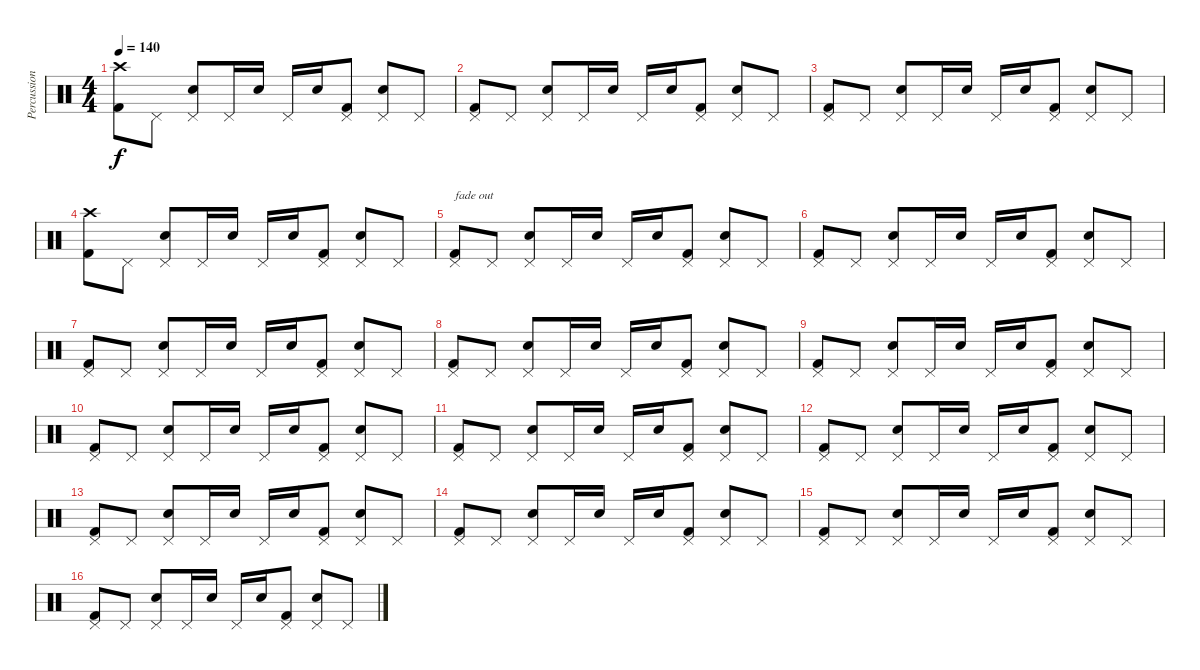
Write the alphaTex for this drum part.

\track ("Percussion" "Percussion") {instrument percussion}
\staff {score}
\articulation defaults
\ts (4 4)
\tempo 140
\clef neutral
\ks c
("Crash high (hit)" "Kick (hit) 2").8{dy f} "Pedal Hi-Hat (hit)".8 ("Pedal Hi-Hat (hit)" "Electric Snare (hit)").8 "Pedal Hi-Hat (hit)".16 "Electric Snare (hit)".16 "Pedal Hi-Hat (hit)".16 "Electric Snare (hit)".16 ("Pedal Hi-Hat (hit)" "Kick (hit) 2").8 ("Pedal Hi-Hat (hit)" "Electric Snare (hit)").8 "Pedal Hi-Hat (hit)".8 |
("Pedal Hi-Hat (hit)" "Kick (hit) 2").8 "Pedal Hi-Hat (hit)".8 ("Pedal Hi-Hat (hit)" "Electric Snare (hit)").8 "Pedal Hi-Hat (hit)".16 "Electric Snare (hit)".16 "Pedal Hi-Hat (hit)".16 "Electric Snare (hit)".16 ("Pedal Hi-Hat (hit)" "Kick (hit) 2").8 ("Pedal Hi-Hat (hit)" "Electric Snare (hit)").8 "Pedal Hi-Hat (hit)".8 |
("Pedal Hi-Hat (hit)" "Kick (hit) 2").8 "Pedal Hi-Hat (hit)".8 ("Pedal Hi-Hat (hit)" "Electric Snare (hit)").8 "Pedal Hi-Hat (hit)".16 "Electric Snare (hit)".16 "Pedal Hi-Hat (hit)".16 "Electric Snare (hit)".16 ("Pedal Hi-Hat (hit)" "Kick (hit) 2").8 ("Pedal Hi-Hat (hit)" "Electric Snare (hit)").8 "Pedal Hi-Hat (hit)".8 |
("Crash high (hit)" "Kick (hit) 2").8 "Pedal Hi-Hat (hit)".8 ("Pedal Hi-Hat (hit)" "Electric Snare (hit)").8 "Pedal Hi-Hat (hit)".16 "Electric Snare (hit)".16 "Pedal Hi-Hat (hit)".16 "Electric Snare (hit)".16 ("Pedal Hi-Hat (hit)" "Kick (hit) 2").8 ("Pedal Hi-Hat (hit)" "Electric Snare (hit)").8 "Pedal Hi-Hat (hit)".8 |
("Pedal Hi-Hat (hit)" "Kick (hit) 2").8{txt "fade out"} "Pedal Hi-Hat (hit)".8 ("Pedal Hi-Hat (hit)" "Electric Snare (hit)").8 "Pedal Hi-Hat (hit)".16 "Electric Snare (hit)".16 "Pedal Hi-Hat (hit)".16 "Electric Snare (hit)".16 ("Pedal Hi-Hat (hit)" "Kick (hit) 2").8 ("Pedal Hi-Hat (hit)" "Electric Snare (hit)").8 "Pedal Hi-Hat (hit)".8 |
("Pedal Hi-Hat (hit)" "Kick (hit) 2").8 "Pedal Hi-Hat (hit)".8 ("Pedal Hi-Hat (hit)" "Electric Snare (hit)").8 "Pedal Hi-Hat (hit)".16 "Electric Snare (hit)".16 "Pedal Hi-Hat (hit)".16 "Electric Snare (hit)".16 ("Pedal Hi-Hat (hit)" "Kick (hit) 2").8 ("Pedal Hi-Hat (hit)" "Electric Snare (hit)").8 "Pedal Hi-Hat (hit)".8 |
("Pedal Hi-Hat (hit)" "Kick (hit) 2").8 "Pedal Hi-Hat (hit)".8 ("Pedal Hi-Hat (hit)" "Electric Snare (hit)").8 "Pedal Hi-Hat (hit)".16 "Electric Snare (hit)".16 "Pedal Hi-Hat (hit)".16 "Electric Snare (hit)".16 ("Pedal Hi-Hat (hit)" "Kick (hit) 2").8 ("Pedal Hi-Hat (hit)" "Electric Snare (hit)").8 "Pedal Hi-Hat (hit)".8 |
("Pedal Hi-Hat (hit)" "Kick (hit) 2").8 "Pedal Hi-Hat (hit)".8 ("Pedal Hi-Hat (hit)" "Electric Snare (hit)").8 "Pedal Hi-Hat (hit)".16 "Electric Snare (hit)".16 "Pedal Hi-Hat (hit)".16 "Electric Snare (hit)".16 ("Pedal Hi-Hat (hit)" "Kick (hit) 2").8 ("Pedal Hi-Hat (hit)" "Electric Snare (hit)").8 "Pedal Hi-Hat (hit)".8 |
("Pedal Hi-Hat (hit)" "Kick (hit) 2").8 "Pedal Hi-Hat (hit)".8 ("Pedal Hi-Hat (hit)" "Electric Snare (hit)").8 "Pedal Hi-Hat (hit)".16 "Electric Snare (hit)".16 "Pedal Hi-Hat (hit)".16 "Electric Snare (hit)".16 ("Pedal Hi-Hat (hit)" "Kick (hit) 2").8 ("Pedal Hi-Hat (hit)" "Electric Snare (hit)").8 "Pedal Hi-Hat (hit)".8 |
("Pedal Hi-Hat (hit)" "Kick (hit) 2").8 "Pedal Hi-Hat (hit)".8 ("Pedal Hi-Hat (hit)" "Electric Snare (hit)").8 "Pedal Hi-Hat (hit)".16 "Electric Snare (hit)".16 "Pedal Hi-Hat (hit)".16 "Electric Snare (hit)".16 ("Pedal Hi-Hat (hit)" "Kick (hit) 2").8 ("Pedal Hi-Hat (hit)" "Electric Snare (hit)").8 "Pedal Hi-Hat (hit)".8 |
("Pedal Hi-Hat (hit)" "Kick (hit) 2").8 "Pedal Hi-Hat (hit)".8 ("Pedal Hi-Hat (hit)" "Electric Snare (hit)").8 "Pedal Hi-Hat (hit)".16 "Electric Snare (hit)".16 "Pedal Hi-Hat (hit)".16 "Electric Snare (hit)".16 ("Pedal Hi-Hat (hit)" "Kick (hit) 2").8 ("Pedal Hi-Hat (hit)" "Electric Snare (hit)").8 "Pedal Hi-Hat (hit)".8 |
("Pedal Hi-Hat (hit)" "Kick (hit) 2").8 "Pedal Hi-Hat (hit)".8 ("Pedal Hi-Hat (hit)" "Electric Snare (hit)").8 "Pedal Hi-Hat (hit)".16 "Electric Snare (hit)".16 "Pedal Hi-Hat (hit)".16 "Electric Snare (hit)".16 ("Pedal Hi-Hat (hit)" "Kick (hit) 2").8 ("Pedal Hi-Hat (hit)" "Electric Snare (hit)").8 "Pedal Hi-Hat (hit)".8 |
("Pedal Hi-Hat (hit)" "Kick (hit) 2").8 "Pedal Hi-Hat (hit)".8 ("Pedal Hi-Hat (hit)" "Electric Snare (hit)").8 "Pedal Hi-Hat (hit)".16 "Electric Snare (hit)".16 "Pedal Hi-Hat (hit)".16 "Electric Snare (hit)".16 ("Pedal Hi-Hat (hit)" "Kick (hit) 2").8 ("Pedal Hi-Hat (hit)" "Electric Snare (hit)").8 "Pedal Hi-Hat (hit)".8 |
("Pedal Hi-Hat (hit)" "Kick (hit) 2").8 "Pedal Hi-Hat (hit)".8 ("Pedal Hi-Hat (hit)" "Electric Snare (hit)").8 "Pedal Hi-Hat (hit)".16 "Electric Snare (hit)".16 "Pedal Hi-Hat (hit)".16 "Electric Snare (hit)".16 ("Pedal Hi-Hat (hit)" "Kick (hit) 2").8 ("Pedal Hi-Hat (hit)" "Electric Snare (hit)").8 "Pedal Hi-Hat (hit)".8 |
("Pedal Hi-Hat (hit)" "Kick (hit) 2").8 "Pedal Hi-Hat (hit)".8 ("Pedal Hi-Hat (hit)" "Electric Snare (hit)").8 "Pedal Hi-Hat (hit)".16 "Electric Snare (hit)".16 "Pedal Hi-Hat (hit)".16 "Electric Snare (hit)".16 ("Pedal Hi-Hat (hit)" "Kick (hit) 2").8 ("Pedal Hi-Hat (hit)" "Electric Snare (hit)").8 "Pedal Hi-Hat (hit)".8 |
("Pedal Hi-Hat (hit)" "Kick (hit) 2").8 "Pedal Hi-Hat (hit)".8 ("Pedal Hi-Hat (hit)" "Electric Snare (hit)").8 "Pedal Hi-Hat (hit)".16 "Electric Snare (hit)".16 "Pedal Hi-Hat (hit)".16 "Electric Snare (hit)".16 ("Pedal Hi-Hat (hit)" "Kick (hit) 2").8 ("Pedal Hi-Hat (hit)" "Electric Snare (hit)").8 "Pedal Hi-Hat (hit)".8
